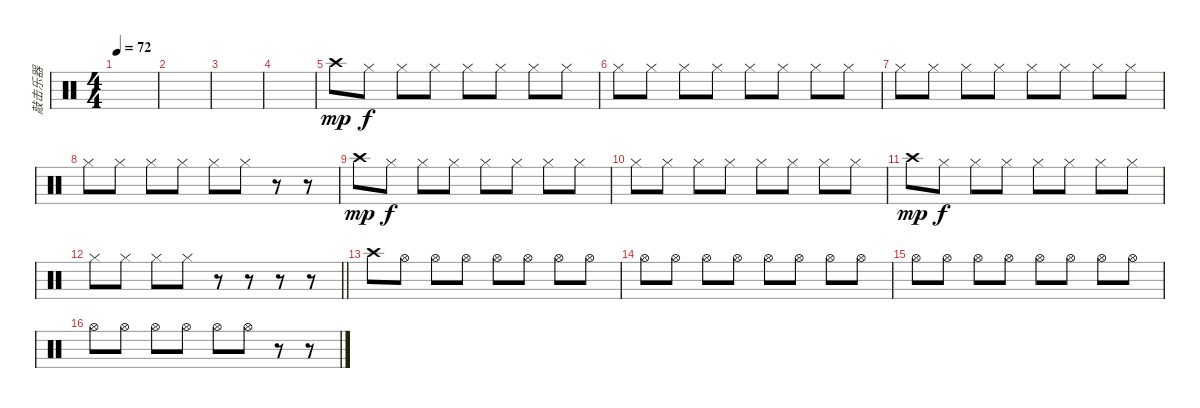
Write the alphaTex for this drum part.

\track ("敲击乐器" "敲击乐器") {instrument percussion}
\staff {score}
\articulation defaults
\ts (4 4)
\tempo 72
\clef neutral
\ks c
|
|
|
|
"Crash high (hit)".8{dy mp} "Hi-Hat (closed)".8{dy f} "Hi-Hat (closed)".8 "Hi-Hat (closed)".8 "Hi-Hat (closed)".8 "Hi-Hat (closed)".8 "Hi-Hat (closed)".8 "Hi-Hat (closed)".8 |
"Hi-Hat (closed)".8 "Hi-Hat (closed)".8 "Hi-Hat (closed)".8 "Hi-Hat (closed)".8 "Hi-Hat (closed)".8 "Hi-Hat (closed)".8 "Hi-Hat (closed)".8 "Hi-Hat (closed)".8 |
"Hi-Hat (closed)".8 "Hi-Hat (closed)".8 "Hi-Hat (closed)".8 "Hi-Hat (closed)".8 "Hi-Hat (closed)".8 "Hi-Hat (closed)".8 "Hi-Hat (closed)".8 "Hi-Hat (closed)".8 |
"Hi-Hat (closed)".8 "Hi-Hat (closed)".8 "Hi-Hat (closed)".8 "Hi-Hat (closed)".8 "Hi-Hat (closed)".8 "Hi-Hat (closed)".8 r.8 r.8 |
"Crash high (hit)".8{dy mp} "Hi-Hat (closed)".8{dy f} "Hi-Hat (closed)".8 "Hi-Hat (closed)".8 "Hi-Hat (closed)".8 "Hi-Hat (closed)".8 "Hi-Hat (closed)".8 "Hi-Hat (closed)".8 |
"Hi-Hat (closed)".8 "Hi-Hat (closed)".8 "Hi-Hat (closed)".8 "Hi-Hat (closed)".8 "Hi-Hat (closed)".8 "Hi-Hat (closed)".8 "Hi-Hat (closed)".8 "Hi-Hat (closed)".8 |
"Crash high (hit)".8{dy mp} "Hi-Hat (closed)".8{dy f} "Hi-Hat (closed)".8 "Hi-Hat (closed)".8 "Hi-Hat (closed)".8 "Hi-Hat (closed)".8 "Hi-Hat (closed)".8 "Hi-Hat (closed)".8 |
\barLineRight lightlight "Hi-Hat (closed)".8 "Hi-Hat (closed)".8 "Hi-Hat (closed)".8 "Hi-Hat (closed)".8
r.8 r.8 r.8 r.8 |
"Crash high (hit)".8 "Hi-Hat (open)".8 "Hi-Hat (open)".8 "Hi-Hat (open)".8 "Hi-Hat (open)".8 "Hi-Hat (open)".8 "Hi-Hat (open)".8 "Hi-Hat (open)".8 |
"Hi-Hat (open)".8 "Hi-Hat (open)".8 "Hi-Hat (open)".8 "Hi-Hat (open)".8 "Hi-Hat (open)".8 "Hi-Hat (open)".8 "Hi-Hat (open)".8 "Hi-Hat (open)".8 |
"Hi-Hat (open)".8 "Hi-Hat (open)".8 "Hi-Hat (open)".8 "Hi-Hat (open)".8 "Hi-Hat (open)".8 "Hi-Hat (open)".8 "Hi-Hat (open)".8 "Hi-Hat (open)".8 |
"Hi-Hat (open)".8 "Hi-Hat (open)".8 "Hi-Hat (open)".8 "Hi-Hat (open)".8 "Hi-Hat (open)".8 "Hi-Hat (open)".8 r.8 r.8
